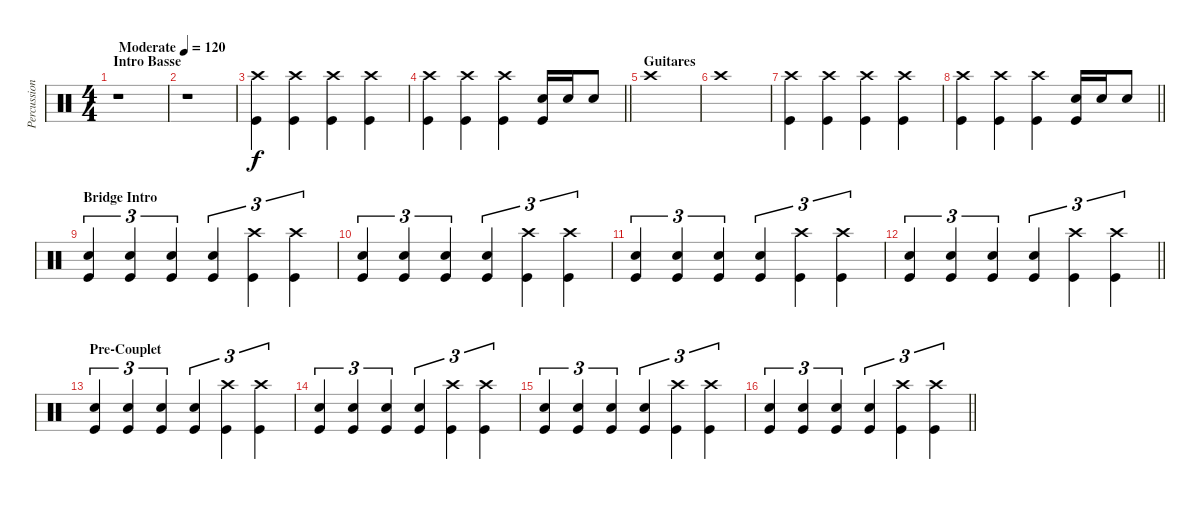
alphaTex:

\track ("Percussions" "Percussion") {instrument percussion}
\staff {score}
\articulation defaults
\ts (4 4)
\section ("" "Intro Basse")
\tempo (120 "Moderate")
\clef neutral
\ks c
r.1{dy f} |
r.1 |
("Kick (hit)" "Crash high (hit)").4 ("Kick (hit)" "Crash high (hit)").4 ("Kick (hit)" "Crash high (hit)").4 ("Kick (hit)" "Crash high (hit)").4 |
\barLineRight lightlight
("Kick (hit)" "Crash high (hit)").4 ("Kick (hit)" "Crash high (hit)").4 ("Kick (hit)" "Crash high (hit)").4 ("Kick (hit)" "Snare (hit) 2").16 "Snare (hit) 2".16 "Snare (hit) 2".8 |
\section ("" "Guitares")
"Crash high (hit)".1 |
"Crash high (hit)".1 |
("Kick (hit)" "Crash high (hit)").4 ("Kick (hit)" "Crash high (hit)").4 ("Kick (hit)" "Crash high (hit)").4 ("Kick (hit)" "Crash high (hit)").4 |
\barLineRight lightlight
("Kick (hit)" "Crash high (hit)").4 ("Kick (hit)" "Crash high (hit)").4 ("Kick (hit)" "Crash high (hit)").4 ("Kick (hit)" "Snare (hit) 2").16 "Snare (hit) 2".16 "Snare (hit) 2".8 |
\section ("" "Bridge Intro")
("Kick (hit)" "Snare (hit) 2").4{tu (3 2)} ("Kick (hit)" "Snare (hit) 2").4{tu (3 2)} ("Kick (hit)" "Snare (hit) 2").4{tu (3 2)} ("Kick (hit)" "Snare (hit) 2").4{tu (3 2)} ("Kick (hit)" "Crash high (hit)").4{tu (3 2)} ("Kick (hit)" "Crash high (hit)").4{tu (3 2)} |
("Kick (hit)" "Snare (hit) 2").4{tu (3 2)} ("Kick (hit)" "Snare (hit) 2").4{tu (3 2)} ("Kick (hit)" "Snare (hit) 2").4{tu (3 2)} ("Kick (hit)" "Snare (hit) 2").4{tu (3 2)} ("Kick (hit)" "Crash high (hit)").4{tu (3 2)} ("Kick (hit)" "Crash high (hit)").4{tu (3 2)} |
("Kick (hit)" "Snare (hit) 2").4{tu (3 2)} ("Kick (hit)" "Snare (hit) 2").4{tu (3 2)} ("Kick (hit)" "Snare (hit) 2").4{tu (3 2)} ("Kick (hit)" "Snare (hit) 2").4{tu (3 2)} ("Kick (hit)" "Crash high (hit)").4{tu (3 2)} ("Kick (hit)" "Crash high (hit)").4{tu (3 2)} |
\barLineRight lightlight
("Kick (hit)" "Snare (hit) 2").4{tu (3 2)} ("Kick (hit)" "Snare (hit) 2").4{tu (3 2)} ("Kick (hit)" "Snare (hit) 2").4{tu (3 2)} ("Kick (hit)" "Snare (hit) 2").4{tu (3 2)} ("Kick (hit)" "Crash high (hit)").4{tu (3 2)} ("Kick (hit)" "Crash high (hit)").4{tu (3 2)} |
\section ("" "Pre-Couplet")
("Kick (hit)" "Snare (hit) 2").4{tu (3 2)} ("Kick (hit)" "Snare (hit) 2").4{tu (3 2)} ("Kick (hit)" "Snare (hit) 2").4{tu (3 2)} ("Kick (hit)" "Snare (hit) 2").4{tu (3 2)} ("Kick (hit)" "Crash high (hit)").4{tu (3 2)} ("Kick (hit)" "Crash high (hit)").4{tu (3 2)} |
("Kick (hit)" "Snare (hit) 2").4{tu (3 2)} ("Kick (hit)" "Snare (hit) 2").4{tu (3 2)} ("Kick (hit)" "Snare (hit) 2").4{tu (3 2)} ("Kick (hit)" "Snare (hit) 2").4{tu (3 2)} ("Kick (hit)" "Crash high (hit)").4{tu (3 2)} ("Kick (hit)" "Crash high (hit)").4{tu (3 2)} |
("Kick (hit)" "Snare (hit) 2").4{tu (3 2)} ("Kick (hit)" "Snare (hit) 2").4{tu (3 2)} ("Kick (hit)" "Snare (hit) 2").4{tu (3 2)} ("Kick (hit)" "Snare (hit) 2").4{tu (3 2)} ("Kick (hit)" "Crash high (hit)").4{tu (3 2)} ("Kick (hit)" "Crash high (hit)").4{tu (3 2)} |
\barLineRight lightlight
("Kick (hit)" "Snare (hit) 2").4{tu (3 2)} ("Kick (hit)" "Snare (hit) 2").4{tu (3 2)} ("Kick (hit)" "Snare (hit) 2").4{tu (3 2)} ("Kick (hit)" "Snare (hit) 2").4{tu (3 2)} ("Kick (hit)" "Crash high (hit)").4{tu (3 2)} ("Kick (hit)" "Crash high (hit)").4{tu (3 2)}
